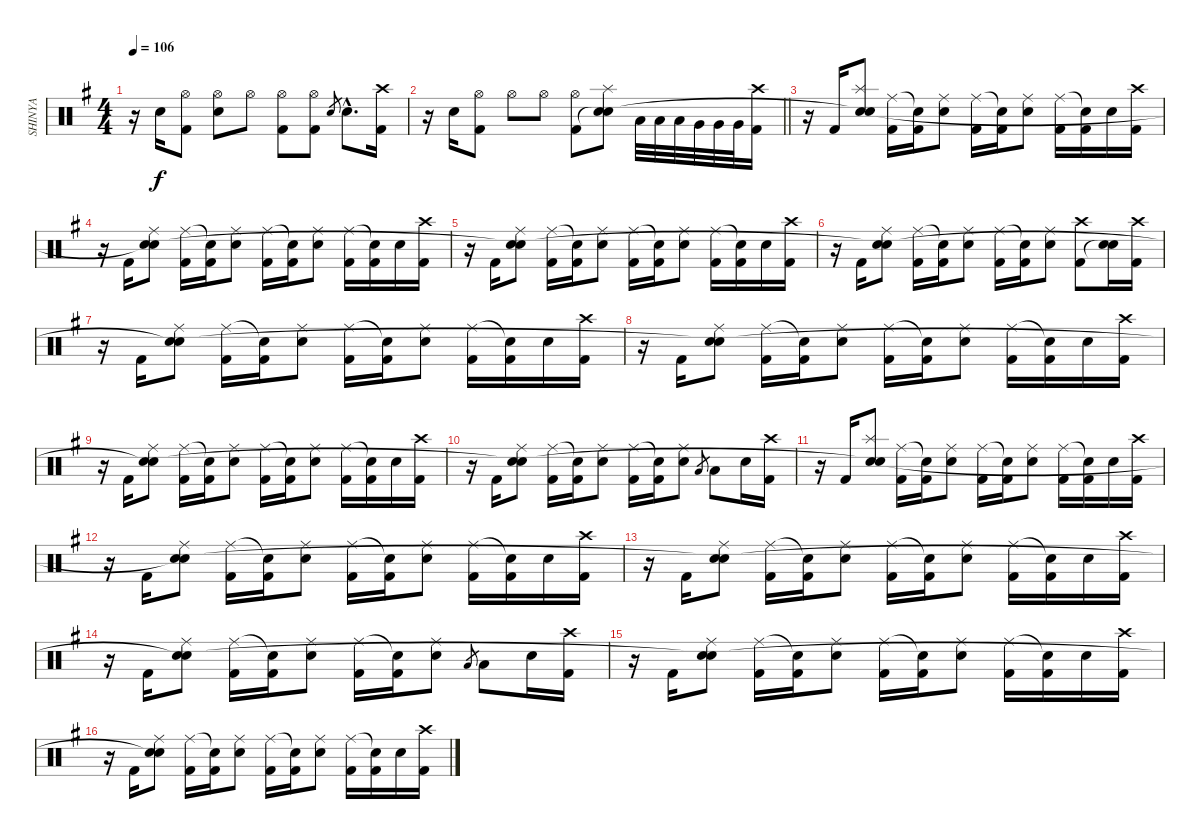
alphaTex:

\track ("SHINYA" "SHINYA") {instrument percussion}
\staff {score}
\articulation defaults
\ts (4 4)
\tempo 106
\clef neutral
\ks g
r.16{dy f} "Electric Snare (hit)".16 ("Hi-Hat (open)" "Kick (hit) 2").8 ("Hi-Hat (open)" "Electric Snare (hit)").8 "Hi-Hat (open)".8 ("Hi-Hat (open)" "Kick (hit) 2").8 ("Hi-Hat (open)" "Kick (hit) 2").8 "Electric Snare (hit)".8{gr} "Electric Snare (hit)"{hac}.8{d} ("Crash high (hit)" "Kick (hit) 2").16 |
\barLineRight lightlight
r.16 "Electric Snare (hit)".16 ("Hi-Hat (open)" "Kick (hit) 2").8 "Hi-Hat (open)".8 "Hi-Hat (open)".8 ("Hi-Hat (open)" "Kick (hit) 2").8 ("Splash (hit)" "Snare (hit)"{t} "Electric Snare (hit)").8 "Low Tom (hit)".32 "Low Tom (hit)".32 "Low Tom (hit)".32 "Very Low Tom (hit)".32 "Very Low Tom (hit)".32 "Very Low Tom (hit)".32 ("Crash high (hit)" "Kick (hit) 2").16 |
r.16 "Kick (hit) 2".16 ("Splash (hit)" "Electric Snare (hit)" "Snare (hit)"{t}).8 ("Ride (middle)" "Kick (hit) 2").16 ("Snare (hit)"{t} "Kick (hit) 2").16 ("Ride (middle)" "Electric Snare (hit)").8 ("Ride (middle)" "Kick (hit) 2").16 ("Snare (hit)"{t} "Kick (hit) 2").16 ("Ride (middle)" "Electric Snare (hit)").8 ("Ride (middle)" "Kick (hit) 2").16 ("Snare (hit)"{t} "Kick (hit) 2").16 "Electric Snare (hit)".16 ("Crash high (hit)" "Kick (hit) 2").16 |
r.16 "Kick (hit) 2".16 ("Ride (middle)" "Electric Snare (hit)" "Snare (hit)"{t}).8 ("Ride (middle)" "Kick (hit) 2").16 ("Snare (hit)"{t} "Kick (hit) 2").16 ("Ride (middle)" "Electric Snare (hit)").8 ("Ride (middle)" "Kick (hit) 2").16 ("Snare (hit)"{t} "Kick (hit) 2").16 ("Ride (middle)" "Electric Snare (hit)").8 ("Ride (middle)" "Kick (hit) 2").16 ("Snare (hit)"{t} "Kick (hit) 2").16 "Electric Snare (hit)".16 ("Crash high (hit)" "Kick (hit) 2").16 |
r.16 "Kick (hit) 2".16 ("Ride (middle)" "Electric Snare (hit)" "Snare (hit)"{t}).8 ("Ride (middle)" "Kick (hit) 2").16 ("Snare (hit)"{t} "Kick (hit) 2").16 ("Ride (middle)" "Electric Snare (hit)").8 ("Ride (middle)" "Kick (hit) 2").16 ("Snare (hit)"{t} "Kick (hit) 2").16 ("Ride (middle)" "Electric Snare (hit)").8 ("Ride (middle)" "Kick (hit) 2").16 ("Snare (hit)"{t} "Kick (hit) 2").16 "Electric Snare (hit)".16 ("Crash high (hit)" "Kick (hit) 2").16 |
r.16 "Kick (hit) 2".16 ("Ride (middle)" "Electric Snare (hit)" "Snare (hit)"{t}).8 ("Ride (middle)" "Kick (hit) 2").16 ("Snare (hit)"{t} "Kick (hit) 2").16 ("Ride (middle)" "Electric Snare (hit)").8 ("Ride (middle)" "Kick (hit) 2").16 ("Snare (hit)"{t} "Kick (hit) 2").16 ("Ride (middle)" "Electric Snare (hit)").8 ("Crash high (hit)" "Kick (hit) 2").8 ("Electric Snare (hit)" "Snare (hit)"{t}).16 ("Crash high (hit)" "Kick (hit) 2").16 |
r.16 "Kick (hit) 2".16 ("Ride (middle)" "Electric Snare (hit)" "Snare (hit)"{t}).8 ("Ride (middle)" "Kick (hit) 2").16 ("Snare (hit)"{t} "Kick (hit) 2").16 ("Ride (middle)" "Electric Snare (hit)").8 ("Ride (middle)" "Kick (hit) 2").16 ("Snare (hit)"{t} "Kick (hit) 2").16 ("Ride (middle)" "Electric Snare (hit)").8 ("Ride (middle)" "Kick (hit) 2").16 ("Snare (hit)"{t} "Kick (hit) 2").16 "Electric Snare (hit)".16 ("Crash high (hit)" "Kick (hit) 2").16 |
r.16 "Kick (hit) 2".16 ("Ride (middle)" "Electric Snare (hit)" "Snare (hit)"{t}).8 ("Ride (middle)" "Kick (hit) 2").16 ("Snare (hit)"{t} "Kick (hit) 2").16 ("Ride (middle)" "Electric Snare (hit)").8 ("Ride (middle)" "Kick (hit) 2").16 ("Snare (hit)"{t} "Kick (hit) 2").16 ("Ride (middle)" "Electric Snare (hit)").8 ("Ride (middle)" "Kick (hit) 2").16 ("Snare (hit)"{t} "Kick (hit) 2").16 "Electric Snare (hit)".16 ("Crash high (hit)" "Kick (hit) 2").16 |
r.16 "Kick (hit) 2".16 ("Ride (middle)" "Electric Snare (hit)" "Snare (hit)"{t}).8 ("Ride (middle)" "Kick (hit) 2").16 ("Snare (hit)"{t} "Kick (hit) 2").16 ("Ride (middle)" "Electric Snare (hit)").8 ("Ride (middle)" "Kick (hit) 2").16 ("Snare (hit)"{t} "Kick (hit) 2").16 ("Ride (middle)" "Electric Snare (hit)").8 ("Ride (middle)" "Kick (hit) 2").16 ("Snare (hit)"{t} "Kick (hit) 2").16 "Electric Snare (hit)".16 ("Crash high (hit)" "Kick (hit) 2").16 |
r.16 "Kick (hit) 2".16 ("Ride (middle)" "Electric Snare (hit)" "Snare (hit)"{t}).8 ("Ride (middle)" "Kick (hit) 2").16 ("Snare (hit)"{t} "Kick (hit) 2").16 ("Ride (middle)" "Electric Snare (hit)").8 ("Ride (middle)" "Kick (hit) 2").16 ("Snare (hit)"{t} "Kick (hit) 2").16 ("Ride (middle)" "Electric Snare (hit)").8 "Low Tom (hit)".8{gr} "Low Tom (hit)".8 "Electric Snare (hit)".16 ("Crash high (hit)" "Kick (hit) 2").16 |
r.16 "Kick (hit) 2".16 ("Splash (hit)" "Electric Snare (hit)" "Snare (hit)"{t}).8 ("Ride (middle)" "Kick (hit) 2").16 ("Snare (hit)"{t} "Kick (hit) 2").16 ("Ride (middle)" "Electric Snare (hit)").8 ("Ride (middle)" "Kick (hit) 2").16 ("Snare (hit)"{t} "Kick (hit) 2").16 ("Ride (middle)" "Electric Snare (hit)").8 ("Ride (middle)" "Kick (hit) 2").16 ("Snare (hit)"{t} "Kick (hit) 2").16 "Electric Snare (hit)".16 ("Crash high (hit)" "Kick (hit) 2").16 |
r.16 "Kick (hit) 2".16 ("Ride (middle)" "Electric Snare (hit)" "Snare (hit)"{t}).8 ("Ride (middle)" "Kick (hit) 2").16 ("Snare (hit)"{t} "Kick (hit) 2").16 ("Ride (middle)" "Electric Snare (hit)").8 ("Ride (middle)" "Kick (hit) 2").16 ("Snare (hit)"{t} "Kick (hit) 2").16 ("Ride (middle)" "Electric Snare (hit)").8 ("Ride (middle)" "Kick (hit) 2").16 ("Snare (hit)"{t} "Kick (hit) 2").16 "Electric Snare (hit)".16 ("Crash high (hit)" "Kick (hit) 2").16 |
r.16 "Kick (hit) 2".16 ("Ride (middle)" "Electric Snare (hit)" "Snare (hit)"{t}).8 ("Ride (middle)" "Kick (hit) 2").16 ("Snare (hit)"{t} "Kick (hit) 2").16 ("Ride (middle)" "Electric Snare (hit)").8 ("Ride (middle)" "Kick (hit) 2").16 ("Snare (hit)"{t} "Kick (hit) 2").16 ("Ride (middle)" "Electric Snare (hit)").8 ("Ride (middle)" "Kick (hit) 2").16 ("Snare (hit)"{t} "Kick (hit) 2").16 "Electric Snare (hit)".16 ("Crash high (hit)" "Kick (hit) 2").16 |
r.16 "Kick (hit) 2".16 ("Ride (middle)" "Electric Snare (hit)" "Snare (hit)"{t}).8 ("Ride (middle)" "Kick (hit) 2").16 ("Snare (hit)"{t} "Kick (hit) 2").16 ("Ride (middle)" "Electric Snare (hit)").8 ("Ride (middle)" "Kick (hit) 2").16 ("Snare (hit)"{t} "Kick (hit) 2").16 ("Ride (middle)" "Electric Snare (hit)").8 "Low Tom (hit)".8{gr} "Low Tom (hit)".8 "Electric Snare (hit)".16 ("Crash high (hit)" "Kick (hit) 2").16 |
r.16 "Kick (hit) 2".16 ("Ride (middle)" "Electric Snare (hit)" "Snare (hit)"{t}).8 ("Ride (middle)" "Kick (hit) 2").16 ("Snare (hit)"{t} "Kick (hit) 2").16 ("Ride (middle)" "Electric Snare (hit)").8 ("Ride (middle)" "Kick (hit) 2").16 ("Snare (hit)"{t} "Kick (hit) 2").16 ("Ride (middle)" "Electric Snare (hit)").8 ("Ride (middle)" "Kick (hit) 2").16 ("Snare (hit)"{t} "Kick (hit) 2").16 "Electric Snare (hit)".16 ("Crash high (hit)" "Kick (hit) 2").16 |
r.16 "Kick (hit) 2".16 ("Ride (middle)" "Electric Snare (hit)" "Snare (hit)"{t}).8 ("Ride (middle)" "Kick (hit) 2").16 ("Snare (hit)"{t} "Kick (hit) 2").16 ("Ride (middle)" "Electric Snare (hit)").8 ("Ride (middle)" "Kick (hit) 2").16 ("Snare (hit)"{t} "Kick (hit) 2").16 ("Ride (middle)" "Electric Snare (hit)").8 ("Ride (middle)" "Kick (hit) 2").16 ("Snare (hit)"{t} "Kick (hit) 2").16 "Electric Snare (hit)".16 ("Crash high (hit)" "Kick (hit) 2").16
